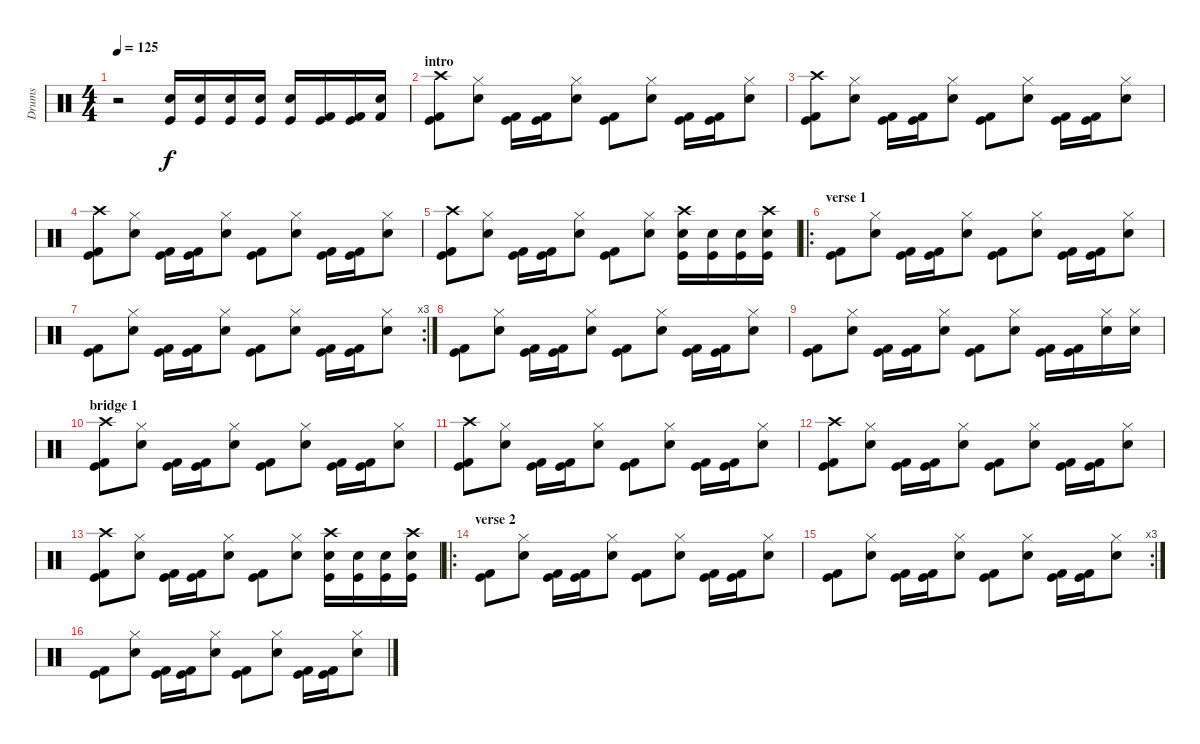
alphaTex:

\track ("Drums" "Drums") {instrument percussion}
\staff {score}
\articulation defaults
\ts (4 4)
\tempo 125
\clef neutral
\ks c
r.2{dy f} ("Kick (hit)" "Electric Snare (hit)").16 ("Kick (hit)" "Electric Snare (hit)").16 ("Kick (hit)" "Electric Snare (hit)").16 ("Kick (hit)" "Snare (hit) 2").16 ("Kick (hit)" "Snare (hit) 2").16 ("Kick (hit)" "Kick (hit) 2").16 ("Kick (hit)" "Kick (hit) 2").16 ("Electric Snare (hit)" "Kick (hit) 2").16 |
\section ("" "intro")
("Crash high (hit)" "Kick (hit)" "Kick (hit) 2").8 ("Hi-Hat (closed)" "Electric Snare (hit)").8 ("Kick (hit)" "Kick (hit) 2").16 ("Kick (hit)" "Kick (hit) 2").16 ("Hi-Hat (closed)" "Electric Snare (hit)").8 ("Kick (hit)" "Kick (hit) 2").8 ("Hi-Hat (closed)" "Electric Snare (hit)").8 ("Kick (hit)" "Kick (hit) 2").16 ("Kick (hit)" "Kick (hit) 2").16 ("Hi-Hat (closed)" "Electric Snare (hit)").8 |
("Crash high (hit)" "Kick (hit)" "Kick (hit) 2").8 ("Hi-Hat (closed)" "Electric Snare (hit)").8 ("Kick (hit)" "Kick (hit) 2").16 ("Kick (hit)" "Kick (hit) 2").16 ("Hi-Hat (closed)" "Electric Snare (hit)").8 ("Kick (hit)" "Kick (hit) 2").8 ("Hi-Hat (closed)" "Electric Snare (hit)").8 ("Kick (hit)" "Kick (hit) 2").16 ("Kick (hit)" "Kick (hit) 2").16 ("Hi-Hat (closed)" "Electric Snare (hit)").8 |
("Crash high (hit)" "Kick (hit)" "Kick (hit) 2").8 ("Hi-Hat (closed)" "Electric Snare (hit)").8 ("Kick (hit)" "Kick (hit) 2").16 ("Kick (hit)" "Kick (hit) 2").16 ("Hi-Hat (closed)" "Electric Snare (hit)").8 ("Kick (hit)" "Kick (hit) 2").8 ("Hi-Hat (closed)" "Electric Snare (hit)").8 ("Kick (hit)" "Kick (hit) 2").16 ("Kick (hit)" "Kick (hit) 2").16 ("Hi-Hat (closed)" "Electric Snare (hit)").8 |
("Crash high (hit)" "Kick (hit)" "Kick (hit) 2").8 ("Hi-Hat (closed)" "Electric Snare (hit)").8 ("Kick (hit)" "Kick (hit) 2").16 ("Kick (hit)" "Kick (hit) 2").16 ("Hi-Hat (closed)" "Electric Snare (hit)").8 ("Kick (hit)" "Kick (hit) 2").8 ("Hi-Hat (closed)" "Electric Snare (hit)").8 ("Crash high (hit)" "Kick (hit)" "Snare (hit) 2").16 ("Kick (hit)" "Snare (hit) 2").16 ("Kick (hit)" "Snare (hit) 2").16 ("Crash high (hit)" "Kick (hit)" "Snare (hit) 2").16 |
\ro
\section ("" "verse 1")
("Kick (hit)" "Kick (hit) 2").8 ("Hi-Hat (closed)" "Electric Snare (hit)").8 ("Kick (hit)" "Kick (hit) 2").16 ("Kick (hit)" "Kick (hit) 2").16 ("Hi-Hat (closed)" "Electric Snare (hit)").8 ("Kick (hit)" "Kick (hit) 2").8 ("Hi-Hat (closed)" "Electric Snare (hit)").8 ("Kick (hit)" "Kick (hit) 2").16 ("Kick (hit)" "Kick (hit) 2").16 ("Hi-Hat (closed)" "Electric Snare (hit)").8 |
\rc 3
("Kick (hit)" "Kick (hit) 2").8 ("Hi-Hat (closed)" "Electric Snare (hit)").8 ("Kick (hit)" "Kick (hit) 2").16 ("Kick (hit)" "Kick (hit) 2").16 ("Hi-Hat (closed)" "Electric Snare (hit)").8 ("Kick (hit)" "Kick (hit) 2").8 ("Hi-Hat (closed)" "Electric Snare (hit)").8 ("Kick (hit)" "Kick (hit) 2").16 ("Kick (hit)" "Kick (hit) 2").16 ("Hi-Hat (closed)" "Electric Snare (hit)").8 |
("Kick (hit)" "Kick (hit) 2").8 ("Hi-Hat (closed)" "Electric Snare (hit)").8 ("Kick (hit)" "Kick (hit) 2").16 ("Kick (hit)" "Kick (hit) 2").16 ("Hi-Hat (closed)" "Electric Snare (hit)").8 ("Kick (hit)" "Kick (hit) 2").8 ("Hi-Hat (closed)" "Electric Snare (hit)").8 ("Kick (hit)" "Kick (hit) 2").16 ("Kick (hit)" "Kick (hit) 2").16 ("Hi-Hat (closed)" "Electric Snare (hit)").8 |
("Kick (hit)" "Kick (hit) 2").8 ("Hi-Hat (closed)" "Electric Snare (hit)").8 ("Kick (hit)" "Kick (hit) 2").16 ("Kick (hit)" "Kick (hit) 2").16 ("Hi-Hat (closed)" "Electric Snare (hit)").8 ("Kick (hit)" "Kick (hit) 2").8 ("Hi-Hat (closed)" "Electric Snare (hit)").8 ("Kick (hit)" "Kick (hit) 2").16 ("Kick (hit)" "Kick (hit) 2").16 ("Hi-Hat (closed)" "Electric Snare (hit)").16 ("Hi-Hat (closed)" "Electric Snare (hit)").16 |
\section ("" "bridge 1")
("Crash high (hit)" "Kick (hit)" "Kick (hit) 2").8 ("Hi-Hat (closed)" "Electric Snare (hit)").8 ("Kick (hit)" "Kick (hit) 2").16 ("Kick (hit)" "Kick (hit) 2").16 ("Hi-Hat (closed)" "Electric Snare (hit)").8 ("Kick (hit)" "Kick (hit) 2").8 ("Hi-Hat (closed)" "Electric Snare (hit)").8 ("Kick (hit)" "Kick (hit) 2").16 ("Kick (hit)" "Kick (hit) 2").16 ("Hi-Hat (closed)" "Electric Snare (hit)").8 |
("Crash high (hit)" "Kick (hit)" "Kick (hit) 2").8 ("Hi-Hat (closed)" "Electric Snare (hit)").8 ("Kick (hit)" "Kick (hit) 2").16 ("Kick (hit)" "Kick (hit) 2").16 ("Hi-Hat (closed)" "Electric Snare (hit)").8 ("Kick (hit)" "Kick (hit) 2").8 ("Hi-Hat (closed)" "Electric Snare (hit)").8 ("Kick (hit)" "Kick (hit) 2").16 ("Kick (hit)" "Kick (hit) 2").16 ("Hi-Hat (closed)" "Electric Snare (hit)").8 |
("Crash high (hit)" "Kick (hit)" "Kick (hit) 2").8 ("Hi-Hat (closed)" "Electric Snare (hit)").8 ("Kick (hit)" "Kick (hit) 2").16 ("Kick (hit)" "Kick (hit) 2").16 ("Hi-Hat (closed)" "Electric Snare (hit)").8 ("Kick (hit)" "Kick (hit) 2").8 ("Hi-Hat (closed)" "Electric Snare (hit)").8 ("Kick (hit)" "Kick (hit) 2").16 ("Kick (hit)" "Kick (hit) 2").16 ("Hi-Hat (closed)" "Electric Snare (hit)").8 |
("Crash high (hit)" "Kick (hit)" "Kick (hit) 2").8 ("Hi-Hat (closed)" "Electric Snare (hit)").8 ("Kick (hit)" "Kick (hit) 2").16 ("Kick (hit)" "Kick (hit) 2").16 ("Hi-Hat (closed)" "Electric Snare (hit)").8 ("Kick (hit)" "Kick (hit) 2").8 ("Hi-Hat (closed)" "Electric Snare (hit)").8 ("Crash high (hit)" "Kick (hit)" "Snare (hit) 2").16 ("Kick (hit)" "Snare (hit) 2").16 ("Kick (hit)" "Snare (hit) 2").16 ("Crash high (hit)" "Kick (hit)" "Snare (hit) 2").16 |
\ro
\section ("" "verse 2")
("Kick (hit)" "Kick (hit) 2").8 ("Hi-Hat (closed)" "Electric Snare (hit)").8 ("Kick (hit)" "Kick (hit) 2").16 ("Kick (hit)" "Kick (hit) 2").16 ("Hi-Hat (closed)" "Electric Snare (hit)").8 ("Kick (hit)" "Kick (hit) 2").8 ("Hi-Hat (closed)" "Electric Snare (hit)").8 ("Kick (hit)" "Kick (hit) 2").16 ("Kick (hit)" "Kick (hit) 2").16 ("Hi-Hat (closed)" "Electric Snare (hit)").8 |
\rc 3
("Kick (hit)" "Kick (hit) 2").8 ("Hi-Hat (closed)" "Electric Snare (hit)").8 ("Kick (hit)" "Kick (hit) 2").16 ("Kick (hit)" "Kick (hit) 2").16 ("Hi-Hat (closed)" "Electric Snare (hit)").8 ("Kick (hit)" "Kick (hit) 2").8 ("Hi-Hat (closed)" "Electric Snare (hit)").8 ("Kick (hit)" "Kick (hit) 2").16 ("Kick (hit)" "Kick (hit) 2").16 ("Hi-Hat (closed)" "Electric Snare (hit)").8 |
("Kick (hit)" "Kick (hit) 2").8 ("Hi-Hat (closed)" "Electric Snare (hit)").8 ("Kick (hit)" "Kick (hit) 2").16 ("Kick (hit)" "Kick (hit) 2").16 ("Hi-Hat (closed)" "Electric Snare (hit)").8 ("Kick (hit)" "Kick (hit) 2").8 ("Hi-Hat (closed)" "Electric Snare (hit)").8 ("Kick (hit)" "Kick (hit) 2").16 ("Kick (hit)" "Kick (hit) 2").16 ("Hi-Hat (closed)" "Electric Snare (hit)").8
